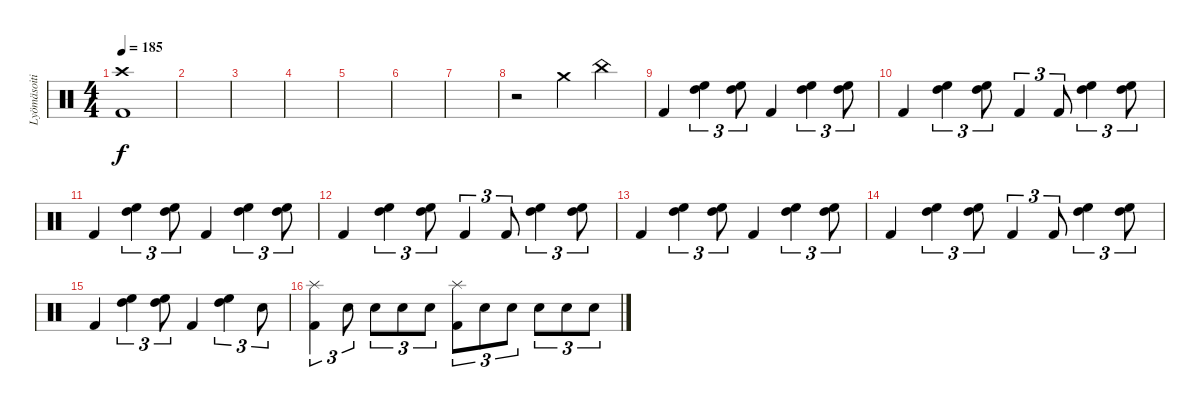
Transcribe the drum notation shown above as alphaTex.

\track ("Lyömäsoitin" "Lyömäsoiti") {instrument percussion}
\staff {score}
\articulation defaults
\ts (4 4)
\tempo 185
\clef neutral
\ks c
("Crash high (hit)" "Kick (hit) 2").1{dy f} |
|
|
|
|
|
|
r.2 "Crash medium (hit)".4 "China (hit)".4 |
"Kick (hit) 2".4 ("High Tom (hit)" "High Floor Tom (hit)").4{tu (3 2)} ("High Tom (hit)" "High Floor Tom (hit)").8{tu (3 2)} "Kick (hit) 2".4 ("High Tom (hit)" "High Floor Tom (hit)").4{tu (3 2)} ("High Tom (hit)" "High Floor Tom (hit)").8{tu (3 2)} |
"Kick (hit) 2".4 ("High Tom (hit)" "High Floor Tom (hit)").4{tu (3 2)} ("High Tom (hit)" "High Floor Tom (hit)").8{tu (3 2)} "Kick (hit) 2".4{tu (3 2)} "Kick (hit) 2".8{tu (3 2)} ("High Tom (hit)" "High Floor Tom (hit)").4{tu (3 2)} ("High Tom (hit)" "High Floor Tom (hit)").8{tu (3 2)} |
"Kick (hit) 2".4 ("High Tom (hit)" "High Floor Tom (hit)").4{tu (3 2)} ("High Tom (hit)" "High Floor Tom (hit)").8{tu (3 2)} "Kick (hit) 2".4 ("High Tom (hit)" "High Floor Tom (hit)").4{tu (3 2)} ("High Tom (hit)" "High Floor Tom (hit)").8{tu (3 2)} |
"Kick (hit) 2".4 ("High Tom (hit)" "High Floor Tom (hit)").4{tu (3 2)} ("High Tom (hit)" "High Floor Tom (hit)").8{tu (3 2)} "Kick (hit) 2".4{tu (3 2)} "Kick (hit) 2".8{tu (3 2)} ("High Tom (hit)" "High Floor Tom (hit)").4{tu (3 2)} ("High Tom (hit)" "High Floor Tom (hit)").8{tu (3 2)} |
"Kick (hit) 2".4 ("High Tom (hit)" "High Floor Tom (hit)").4{tu (3 2)} ("High Tom (hit)" "High Floor Tom (hit)").8{tu (3 2)} "Kick (hit) 2".4 ("High Tom (hit)" "High Floor Tom (hit)").4{tu (3 2)} ("High Tom (hit)" "High Floor Tom (hit)").8{tu (3 2)} |
"Kick (hit) 2".4 ("High Tom (hit)" "High Floor Tom (hit)").4{tu (3 2)} ("High Tom (hit)" "High Floor Tom (hit)").8{tu (3 2)} "Kick (hit) 2".4{tu (3 2)} "Kick (hit) 2".8{tu (3 2)} ("High Tom (hit)" "High Floor Tom (hit)").4{tu (3 2)} ("High Tom (hit)" "High Floor Tom (hit)").8{tu (3 2)} |
"Kick (hit) 2".4 ("High Tom (hit)" "High Floor Tom (hit)").4{tu (3 2)} ("High Tom (hit)" "High Floor Tom (hit)").8{tu (3 2)} "Kick (hit) 2".4 ("High Tom (hit)" "High Floor Tom (hit)").4{tu (3 2)} "Snare (hit) 2".8{tu (3 2)} |
("Splash (hit)" "Kick (hit) 2").4{tu (3 2)} "Snare (hit) 2".8{tu (3 2)} "Snare (hit) 2".8{tu (3 2)} "Snare (hit) 2".8{tu (3 2)} "Snare (hit) 2".8{tu (3 2)} ("Splash (hit)" "Kick (hit) 2").8{tu (3 2)} "Snare (hit) 2".8{tu (3 2)} "Snare (hit) 2".8{tu (3 2)} "Snare (hit) 2".8{tu (3 2)} "Snare (hit) 2".8{tu (3 2)} "Snare (hit) 2".8{tu (3 2)}
